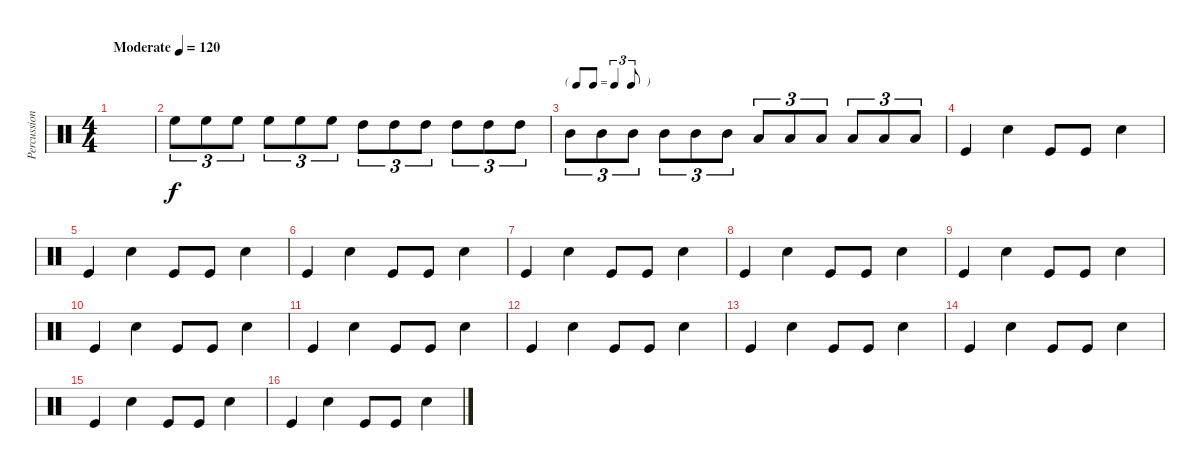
\track ("Percussion" "Percussion") {instrument percussion}
\staff {score}
\articulation defaults
\ts (4 4)
\tempo (120 "Moderate")
\clef neutral
\ks c
|
"High Floor Tom (hit)".8{tu (3 2)} "High Floor Tom (hit)".8{tu (3 2)} "High Floor Tom (hit)".8{tu (3 2)} "High Floor Tom (hit)".8{tu (3 2)} "High Floor Tom (hit)".8{tu (3 2)} "High Floor Tom (hit)".8{tu (3 2)} "High Tom (hit)".8{tu (3 2)} "High Tom (hit)".8{tu (3 2)} "High Tom (hit)".8{tu (3 2)} "High Tom (hit)".8{tu (3 2)} "High Tom (hit)".8{tu (3 2)} "High Tom (hit)".8{tu (3 2)} |
\tf triplet8th "Mid Tom (hit)".8{tu (3 2)} "Mid Tom (hit)".8{tu (3 2)} "Mid Tom (hit)".8{tu (3 2)} "Mid Tom (hit)".8{tu (3 2)} "Mid Tom (hit)".8{tu (3 2)} "Mid Tom (hit)".8{tu (3 2)} "Low Tom (hit)".8{tu (3 2)} "Low Tom (hit)".8{tu (3 2)} "Low Tom (hit)".8{tu (3 2)} "Low Tom (hit)".8{tu (3 2)} "Low Tom (hit)".8{tu (3 2)} "Low Tom (hit)".8{tu (3 2)}
|
"Kick (hit)".4 "Snare (hit) 2".4 "Kick (hit)".8 "Kick (hit)".8 "Snare (hit) 2".4 |
"Kick (hit)".4 "Snare (hit) 2".4 "Kick (hit)".8 "Kick (hit)".8 "Snare (hit) 2".4 |
"Kick (hit)".4 "Snare (hit) 2".4 "Kick (hit)".8 "Kick (hit)".8 "Snare (hit) 2".4 |
"Kick (hit)".4 "Snare (hit) 2".4 "Kick (hit)".8 "Kick (hit)".8 "Snare (hit) 2".4 |
"Kick (hit)".4 "Snare (hit) 2".4 "Kick (hit)".8 "Kick (hit)".8 "Snare (hit) 2".4 |
"Kick (hit)".4 "Snare (hit) 2".4 "Kick (hit)".8 "Kick (hit)".8 "Snare (hit) 2".4 |
"Kick (hit)".4 "Snare (hit) 2".4 "Kick (hit)".8 "Kick (hit)".8 "Snare (hit) 2".4 |
"Kick (hit)".4 "Snare (hit) 2".4 "Kick (hit)".8 "Kick (hit)".8 "Snare (hit) 2".4 |
"Kick (hit)".4 "Snare (hit) 2".4 "Kick (hit)".8 "Kick (hit)".8 "Snare (hit) 2".4 |
"Kick (hit)".4 "Snare (hit) 2".4 "Kick (hit)".8 "Kick (hit)".8 "Snare (hit) 2".4 |
"Kick (hit)".4 "Snare (hit) 2".4 "Kick (hit)".8 "Kick (hit)".8 "Snare (hit) 2".4 |
"Kick (hit)".4 "Snare (hit) 2".4 "Kick (hit)".8 "Kick (hit)".8 "Snare (hit) 2".4 |
"Kick (hit)".4 "Snare (hit) 2".4 "Kick (hit)".8 "Kick (hit)".8 "Snare (hit) 2".4
